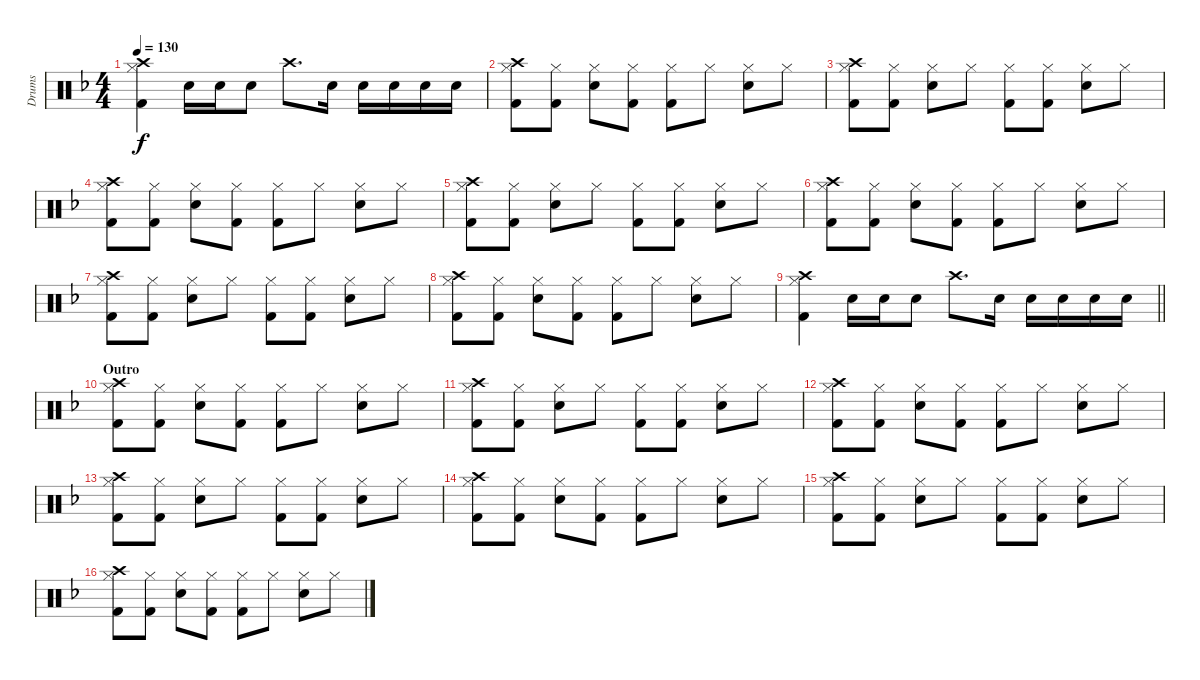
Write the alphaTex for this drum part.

\track ("Drums" "Drums") {instrument percussion}
\staff {score}
\articulation defaults
\ts (4 4)
\tempo 130
\clef neutral
\ks dminor
("Hi-Hat (closed)" "Kick (hit) 2" "Crash high (hit)").4{dy f} "Snare (hit) 2".16 "Snare (hit) 2".16 "Snare (hit) 2".8 "Crash high (hit)".8{d} "Snare (hit) 2".16 "Snare (hit) 2".16 "Snare (hit) 2".16 "Snare (hit) 2".16 "Snare (hit) 2".16 |
("Hi-Hat (closed)" "Kick (hit) 2" "Crash high (hit)").8 ("Hi-Hat (closed)" "Kick (hit) 2").8 ("Hi-Hat (closed)" "Snare (hit) 2").8 ("Hi-Hat (closed)" "Kick (hit) 2").8 ("Hi-Hat (closed)" "Kick (hit) 2").8 "Hi-Hat (closed)".8 ("Hi-Hat (closed)" "Snare (hit) 2").8 "Hi-Hat (closed)".8 |
("Hi-Hat (closed)" "Kick (hit) 2" "Crash high (hit)").8 ("Hi-Hat (closed)" "Kick (hit) 2").8 ("Hi-Hat (closed)" "Snare (hit) 2").8 "Hi-Hat (closed)".8 ("Hi-Hat (closed)" "Kick (hit) 2").8 ("Hi-Hat (closed)" "Kick (hit) 2").8 ("Hi-Hat (closed)" "Snare (hit) 2").8 "Hi-Hat (closed)".8 |
("Hi-Hat (closed)" "Kick (hit) 2" "Crash high (hit)").8 ("Hi-Hat (closed)" "Kick (hit) 2").8 ("Hi-Hat (closed)" "Snare (hit) 2").8 ("Hi-Hat (closed)" "Kick (hit) 2").8 ("Hi-Hat (closed)" "Kick (hit) 2").8 "Hi-Hat (closed)".8 ("Hi-Hat (closed)" "Snare (hit) 2").8 "Hi-Hat (closed)".8 |
("Hi-Hat (closed)" "Kick (hit) 2" "Crash high (hit)").8 ("Hi-Hat (closed)" "Kick (hit) 2").8 ("Hi-Hat (closed)" "Snare (hit) 2").8 "Hi-Hat (closed)".8 ("Hi-Hat (closed)" "Kick (hit) 2").8 ("Hi-Hat (closed)" "Kick (hit) 2").8 ("Hi-Hat (closed)" "Snare (hit) 2").8 "Hi-Hat (closed)".8 |
("Hi-Hat (closed)" "Kick (hit) 2" "Crash high (hit)").8 ("Hi-Hat (closed)" "Kick (hit) 2").8 ("Hi-Hat (closed)" "Snare (hit) 2").8 ("Hi-Hat (closed)" "Kick (hit) 2").8 ("Hi-Hat (closed)" "Kick (hit) 2").8 "Hi-Hat (closed)".8 ("Hi-Hat (closed)" "Snare (hit) 2").8 "Hi-Hat (closed)".8 |
("Hi-Hat (closed)" "Kick (hit) 2" "Crash high (hit)").8 ("Hi-Hat (closed)" "Kick (hit) 2").8 ("Hi-Hat (closed)" "Snare (hit) 2").8 "Hi-Hat (closed)".8 ("Hi-Hat (closed)" "Kick (hit) 2").8 ("Hi-Hat (closed)" "Kick (hit) 2").8 ("Hi-Hat (closed)" "Snare (hit) 2").8 "Hi-Hat (closed)".8 |
("Hi-Hat (closed)" "Kick (hit) 2" "Crash high (hit)").8 ("Hi-Hat (closed)" "Kick (hit) 2").8 ("Hi-Hat (closed)" "Snare (hit) 2").8 ("Hi-Hat (closed)" "Kick (hit) 2").8 ("Hi-Hat (closed)" "Kick (hit) 2").8 "Hi-Hat (closed)".8 ("Hi-Hat (closed)" "Snare (hit) 2").8 "Hi-Hat (closed)".8 |
\barLineRight lightlight
("Hi-Hat (closed)" "Kick (hit) 2" "Crash high (hit)").4 "Snare (hit) 2".16 "Snare (hit) 2".16 "Snare (hit) 2".8 "Crash high (hit)".8{d} "Snare (hit) 2".16 "Snare (hit) 2".16 "Snare (hit) 2".16 "Snare (hit) 2".16 "Snare (hit) 2".16 |
\section ("" "Outro")
("Hi-Hat (closed)" "Kick (hit) 2" "Crash high (hit)").8 ("Hi-Hat (closed)" "Kick (hit) 2").8 ("Hi-Hat (closed)" "Snare (hit) 2").8 ("Hi-Hat (closed)" "Kick (hit) 2").8 ("Hi-Hat (closed)" "Kick (hit) 2").8 "Hi-Hat (closed)".8 ("Hi-Hat (closed)" "Snare (hit) 2").8 "Hi-Hat (closed)".8 |
("Hi-Hat (closed)" "Kick (hit) 2" "Crash high (hit)").8 ("Hi-Hat (closed)" "Kick (hit) 2").8 ("Hi-Hat (closed)" "Snare (hit) 2").8 "Hi-Hat (closed)".8 ("Hi-Hat (closed)" "Kick (hit) 2").8 ("Hi-Hat (closed)" "Kick (hit) 2").8 ("Hi-Hat (closed)" "Snare (hit) 2").8 "Hi-Hat (closed)".8 |
("Hi-Hat (closed)" "Kick (hit) 2" "Crash high (hit)").8 ("Hi-Hat (closed)" "Kick (hit) 2").8 ("Hi-Hat (closed)" "Snare (hit) 2").8 ("Hi-Hat (closed)" "Kick (hit) 2").8 ("Hi-Hat (closed)" "Kick (hit) 2").8 "Hi-Hat (closed)".8 ("Hi-Hat (closed)" "Snare (hit) 2").8 "Hi-Hat (closed)".8 |
("Hi-Hat (closed)" "Kick (hit) 2" "Crash high (hit)").8 ("Hi-Hat (closed)" "Kick (hit) 2").8 ("Hi-Hat (closed)" "Snare (hit) 2").8 "Hi-Hat (closed)".8 ("Hi-Hat (closed)" "Kick (hit) 2").8 ("Hi-Hat (closed)" "Kick (hit) 2").8 ("Hi-Hat (closed)" "Snare (hit) 2").8 "Hi-Hat (closed)".8 |
("Hi-Hat (closed)" "Kick (hit) 2" "Crash high (hit)").8 ("Hi-Hat (closed)" "Kick (hit) 2").8 ("Hi-Hat (closed)" "Snare (hit) 2").8 ("Hi-Hat (closed)" "Kick (hit) 2").8 ("Hi-Hat (closed)" "Kick (hit) 2").8 "Hi-Hat (closed)".8 ("Hi-Hat (closed)" "Snare (hit) 2").8 "Hi-Hat (closed)".8 |
("Hi-Hat (closed)" "Kick (hit) 2" "Crash high (hit)").8 ("Hi-Hat (closed)" "Kick (hit) 2").8 ("Hi-Hat (closed)" "Snare (hit) 2").8 "Hi-Hat (closed)".8 ("Hi-Hat (closed)" "Kick (hit) 2").8 ("Hi-Hat (closed)" "Kick (hit) 2").8 ("Hi-Hat (closed)" "Snare (hit) 2").8 "Hi-Hat (closed)".8 |
("Hi-Hat (closed)" "Kick (hit) 2" "Crash high (hit)").8 ("Hi-Hat (closed)" "Kick (hit) 2").8 ("Hi-Hat (closed)" "Snare (hit) 2").8 ("Hi-Hat (closed)" "Kick (hit) 2").8 ("Hi-Hat (closed)" "Kick (hit) 2").8 "Hi-Hat (closed)".8 ("Hi-Hat (closed)" "Snare (hit) 2").8 "Hi-Hat (closed)".8
